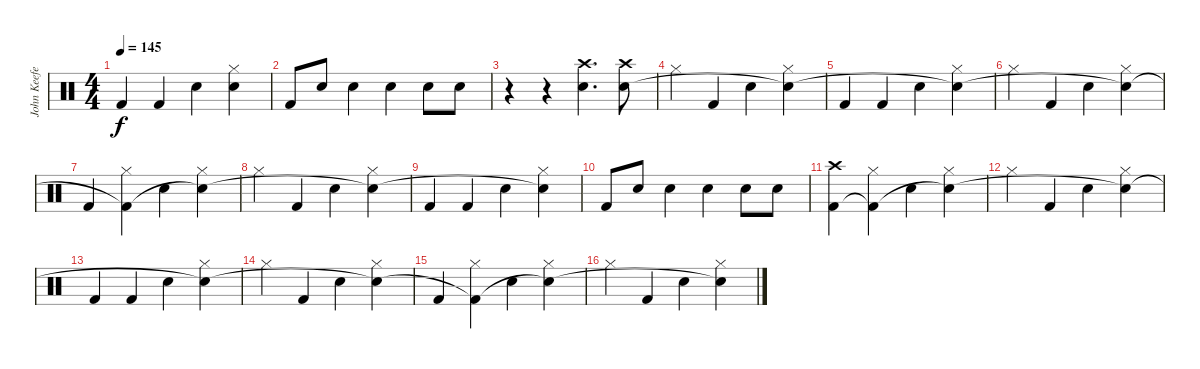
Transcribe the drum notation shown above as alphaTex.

\track ("John Keefe (Percussion)" "John Keefe") {instrument percussion}
\staff {score}
\articulation defaults
\ts (4 4)
\tempo 145
\clef neutral
\ks c "Kick (hit) 2".4{dy f} "Kick (hit) 2".4 "Snare (hit) 2".4
("Hi-Hat (closed)" "Snare (hit) 2"{t}).4 |
"Kick (hit) 2".8 "Snare (hit) 2".8 "Snare (hit) 2".4 "Snare (hit) 2".4 "Snare (hit) 2".8 "Snare (hit) 2".8 |
r.4 r.4 ("Crash high (hit)" "Snare (hit) 2").4{d} ("Crash high (hit)" "Snare (hit) 2").8 |
"Hi-Hat (closed)".4 "Kick (hit) 2".4 "Snare (hit) 2".4 ("Hi-Hat (closed)" "Snare (hit) 2"{t}).4 |
"Kick (hit) 2".4 "Kick (hit) 2".4 "Snare (hit) 2".4 ("Hi-Hat (closed)" "Snare (hit) 2"{t}).4 |
"Hi-Hat (closed)".4 "Kick (hit) 2".4 "Snare (hit) 2".4 ("Hi-Hat (closed)" "Snare (hit) 2"{t}).4 |
"Kick (hit) 2".4 ("Hi-Hat (closed)" "Kick (hit) 2"{t}).4 "Snare (hit) 2".4 ("Hi-Hat (closed)" "Snare (hit) 2"{t}).4 |
"Hi-Hat (closed)".4 "Kick (hit) 2".4 "Snare (hit) 2".4 ("Hi-Hat (closed)" "Snare (hit) 2"{t}).4 |
"Kick (hit) 2".4 "Kick (hit) 2".4 "Snare (hit) 2".4 ("Hi-Hat (closed)" "Snare (hit) 2"{t}).4 |
"Kick (hit) 2".8 "Snare (hit) 2".8 "Snare (hit) 2".4 "Snare (hit) 2".4 "Snare (hit) 2".8 "Snare (hit) 2".8 |
("Crash high (hit)" "Kick (hit) 2").4 ("Hi-Hat (closed)" "Kick (hit) 2"{t}).4 "Snare (hit) 2".4 ("Hi-Hat (closed)" "Snare (hit) 2"{t}).4 |
"Hi-Hat (closed)".4 "Kick (hit) 2".4 "Snare (hit) 2".4 ("Hi-Hat (closed)" "Snare (hit) 2"{t}).4 |
"Kick (hit) 2".4 "Kick (hit) 2".4 "Snare (hit) 2".4 ("Hi-Hat (closed)" "Snare (hit) 2"{t}).4 |
"Hi-Hat (closed)".4 "Kick (hit) 2".4 "Snare (hit) 2".4 ("Hi-Hat (closed)" "Snare (hit) 2"{t}).4 |
"Kick (hit) 2".4 ("Hi-Hat (closed)" "Kick (hit) 2"{t}).4 "Snare (hit) 2".4 ("Hi-Hat (closed)" "Snare (hit) 2"{t}).4 |
"Hi-Hat (closed)".4 "Kick (hit) 2".4 "Snare (hit) 2".4 ("Hi-Hat (closed)" "Snare (hit) 2"{t}).4
